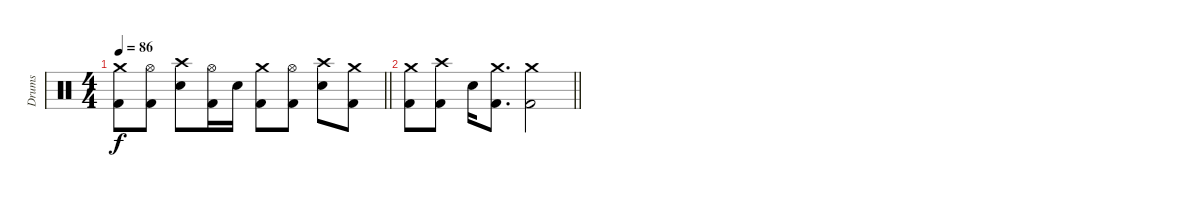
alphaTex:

\track ("Drums" "Drums") {instrument percussion}
\staff {score}
\articulation defaults
\ts (4 4)
\tempo 86
\clef neutral
\barLineRight lightlight
\ks c
("Crash medium (hit)" "Kick (hit) 2").8{dy f} ("Hi-Hat (open)" "Kick (hit) 2").8 ("Crash high (hit)" "Electric Snare (hit)").8 ("Hi-Hat (open)" "Kick (hit) 2").16 "Electric Snare (hit)".16 ("Crash medium (hit)" "Kick (hit) 2").8 ("Hi-Hat (open)" "Kick (hit) 2").8 ("Crash high (hit)" "Electric Snare (hit)").8 ("Crash medium (hit)" "Kick (hit) 2").8 |
\barLineRight lightlight
("Crash medium (hit)" "Kick (hit) 2").8 ("Crash high (hit)" "Kick (hit) 2").8 "Electric Snare (hit)".16 ("Crash medium (hit)" "Kick (hit) 2").8{d} ("Crash medium (hit)" "Kick (hit) 2").2
